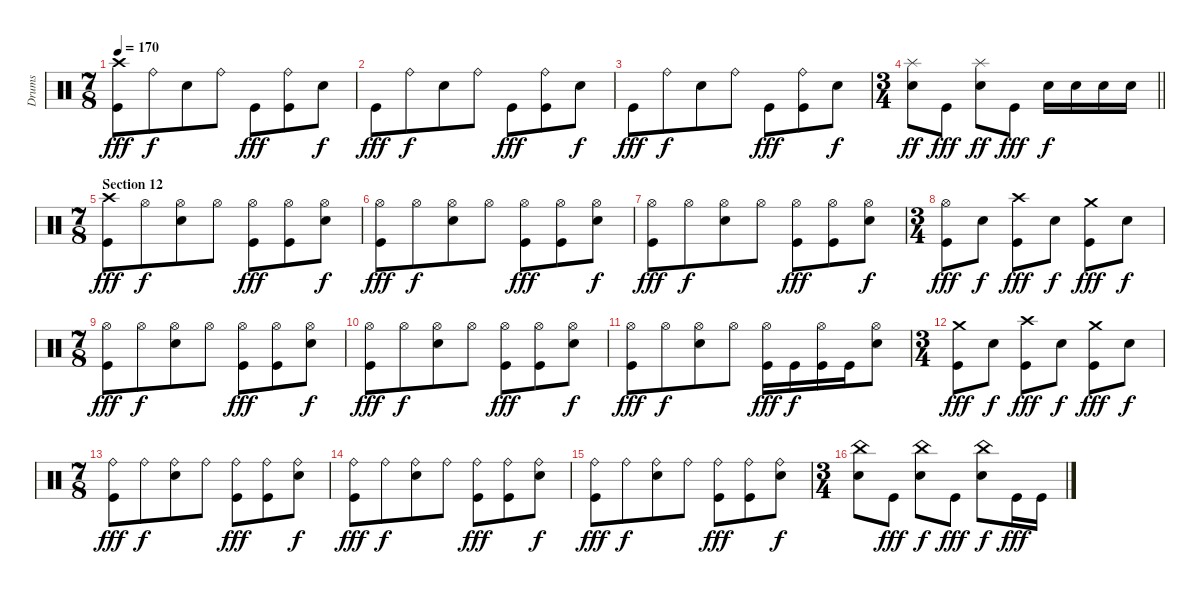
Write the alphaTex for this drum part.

\track ("Drums" "Drums") {instrument percussion}
\staff {score}
\articulation defaults
\ts (7 8)
\tempo 170
\clef neutral
\ks c
("Crash high (hit)" "Kick (hit)").8{dy fff} "Ride (bell)".8{dy f} "Snare (hit) 2".8 "Ride (bell)".8 "Kick (hit)".8{dy fff} ("Ride (bell)" "Kick (hit)").8 "Snare (hit) 2".8{dy f} |
"Kick (hit)".8{dy fff} "Ride (bell)".8{dy f} "Snare (hit) 2".8 "Ride (bell)".8 "Kick (hit)".8{dy fff} ("Ride (bell)" "Kick (hit)").8 "Snare (hit) 2".8{dy f} |
"Kick (hit)".8{dy fff} "Ride (bell)".8{dy f} "Snare (hit) 2".8 "Ride (bell)".8 "Kick (hit)".8{dy fff} ("Ride (bell)" "Kick (hit)").8 "Snare (hit) 2".8{dy f} |
\ts (3 4)
\barLineRight lightlight
("Splash (hit)" "Snare (hit) 2").8{dy ff} "Kick (hit)".8{dy fff} ("Splash (hit)" "Snare (hit) 2").8{dy ff} "Kick (hit)".8{dy fff} "Snare (hit) 2".16{dy f} "Snare (hit) 2".16 "Snare (hit) 2".16 "Snare (hit) 2".16 |
\ts (7 8)
\section ("" "Section 12")
("Crash high (hit)" "Kick (hit)").8{dy fff} "Hi-Hat (open)".8{dy f} ("Hi-Hat (open)" "Snare (hit) 2").8 "Hi-Hat (open)".8 ("Hi-Hat (open)" "Kick (hit)").8{dy fff} ("Hi-Hat (open)" "Kick (hit)").8 ("Hi-Hat (open)" "Snare (hit) 2").8{dy f} |
("Hi-Hat (open)" "Kick (hit)").8{dy fff} "Hi-Hat (open)".8{dy f} ("Hi-Hat (open)" "Snare (hit) 2").8 "Hi-Hat (open)".8 ("Hi-Hat (open)" "Kick (hit)").8{dy fff} ("Hi-Hat (open)" "Kick (hit)").8 ("Hi-Hat (open)" "Snare (hit) 2").8{dy f} |
("Hi-Hat (open)" "Kick (hit)").8{dy fff} "Hi-Hat (open)".8{dy f} ("Hi-Hat (open)" "Snare (hit) 2").8 "Hi-Hat (open)".8 ("Hi-Hat (open)" "Kick (hit)").8{dy fff} ("Hi-Hat (open)" "Kick (hit)").8 ("Hi-Hat (open)" "Snare (hit) 2").8{dy f} |
\ts (3 4)
("Hi-Hat (open)" "Kick (hit)").8{dy fff} "Snare (hit) 2".8{dy f} ("Crash high (hit)" "Kick (hit)").8{dy fff} "Snare (hit) 2".8{dy f} ("Crash medium (hit)" "Kick (hit)").8{dy fff} "Snare (hit) 2".8{dy f} |
\ts (7 8)
("Hi-Hat (open)" "Kick (hit)").8{dy fff} "Hi-Hat (open)".8{dy f} ("Hi-Hat (open)" "Snare (hit) 2").8 "Hi-Hat (open)".8 ("Hi-Hat (open)" "Kick (hit)").8{dy fff} ("Hi-Hat (open)" "Kick (hit)").8 ("Hi-Hat (open)" "Snare (hit) 2").8{dy f} |
("Hi-Hat (open)" "Kick (hit)").8{dy fff} "Hi-Hat (open)".8{dy f} ("Hi-Hat (open)" "Snare (hit) 2").8 "Hi-Hat (open)".8 ("Hi-Hat (open)" "Kick (hit)").8{dy fff} ("Hi-Hat (open)" "Kick (hit)").8 ("Hi-Hat (open)" "Snare (hit) 2").8{dy f} |
("Hi-Hat (open)" "Kick (hit)").8{dy fff} "Hi-Hat (open)".8{dy f} ("Hi-Hat (open)" "Snare (hit) 2").8 "Hi-Hat (open)".8 ("Hi-Hat (open)" "Kick (hit)").16{dy fff} "Kick (hit)".16{dy f} ("Hi-Hat (open)" "Kick (hit)").16 "Kick (hit)".16 ("Hi-Hat (open)" "Snare (hit) 2").8 |
\ts (3 4)
("Crash medium (hit)" "Kick (hit)").8{dy fff} "Snare (hit) 2".8{dy f} ("Crash high (hit)" "Kick (hit)").8{dy fff} "Snare (hit) 2".8{dy f} ("Crash medium (hit)" "Kick (hit)").8{dy fff} "Snare (hit) 2".8{dy f} |
\ts (7 8)
("Ride (bell)" "Kick (hit)").8{dy fff} "Ride (bell)".8{dy f} ("Ride (bell)" "Snare (hit) 2").8 "Ride (bell)".8 ("Ride (bell)" "Kick (hit)").8{dy fff} ("Ride (bell)" "Kick (hit)").8 ("Ride (bell)" "Snare (hit) 2").8{dy f} |
("Ride (bell)" "Kick (hit)").8{dy fff} "Ride (bell)".8{dy f} ("Ride (bell)" "Snare (hit) 2").8 "Ride (bell)".8 ("Ride (bell)" "Kick (hit)").8{dy fff} ("Ride (bell)" "Kick (hit)").8 ("Ride (bell)" "Snare (hit) 2").8{dy f} |
("Ride (bell)" "Kick (hit)").8{dy fff} "Ride (bell)".8{dy f} ("Ride (bell)" "Snare (hit) 2").8 "Ride (bell)".8 ("Ride (bell)" "Kick (hit)").8{dy fff} ("Ride (bell)" "Kick (hit)").8 ("Ride (bell)" "Snare (hit) 2").8{dy f} |
\ts (3 4)
("China (hit)" "Snare (hit) 2").8 "Kick (hit)".8{dy fff} ("China (hit)" "Snare (hit) 2").8{dy f} "Kick (hit)".8{dy fff} ("China (hit)" "Snare (hit) 2").8{dy f} "Kick (hit)".16{dy fff} "Kick (hit)".16
